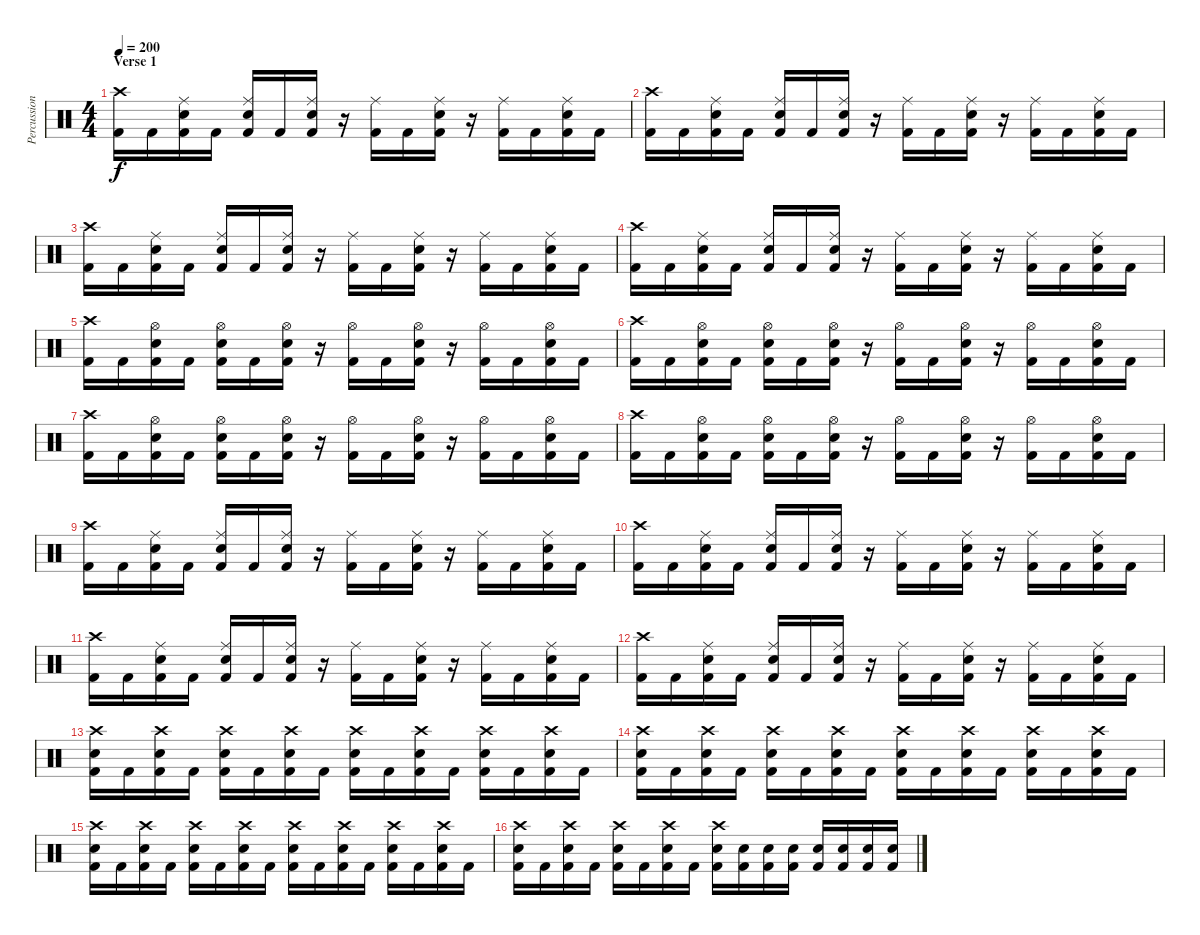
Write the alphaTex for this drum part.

\track ("Percussion" "Percussion") {instrument percussion}
\staff {score}
\articulation defaults
\ts (4 4)
\section ("" "Verse 1")
\tempo 200
\clef neutral
\ks c
("Crash high (hit)" "Kick (hit) 2").16{dy f} "Kick (hit) 2".16 ("Ride (middle)" "Snare (hit) 2" "Kick (hit) 2").16 "Kick (hit) 2".16 ("Ride (middle)" "Snare (hit) 2" "Kick (hit) 2").16 "Kick (hit) 2".16 ("Ride (middle)" "Snare (hit) 2" "Kick (hit) 2").16 r.16 ("Ride (middle)" "Kick (hit) 2").16 "Kick (hit) 2".16 ("Ride (middle)" "Snare (hit) 2" "Kick (hit) 2").16 r.16 ("Ride (middle)" "Kick (hit) 2").16 "Kick (hit) 2".16 ("Ride (middle)" "Snare (hit) 2" "Kick (hit) 2").16 "Kick (hit) 2".16 |
("Crash high (hit)" "Kick (hit) 2").16 "Kick (hit) 2".16 ("Ride (middle)" "Snare (hit) 2" "Kick (hit) 2").16 "Kick (hit) 2".16 ("Ride (middle)" "Snare (hit) 2" "Kick (hit) 2").16 "Kick (hit) 2".16 ("Ride (middle)" "Snare (hit) 2" "Kick (hit) 2").16 r.16 ("Ride (middle)" "Kick (hit) 2").16 "Kick (hit) 2".16 ("Ride (middle)" "Snare (hit) 2" "Kick (hit) 2").16 r.16 ("Ride (middle)" "Kick (hit) 2").16 "Kick (hit) 2".16 ("Ride (middle)" "Snare (hit) 2" "Kick (hit) 2").16 "Kick (hit) 2".16 |
("Crash high (hit)" "Kick (hit) 2").16 "Kick (hit) 2".16 ("Ride (middle)" "Snare (hit) 2" "Kick (hit) 2").16 "Kick (hit) 2".16 ("Ride (middle)" "Snare (hit) 2" "Kick (hit) 2").16 "Kick (hit) 2".16 ("Ride (middle)" "Snare (hit) 2" "Kick (hit) 2").16 r.16 ("Ride (middle)" "Kick (hit) 2").16 "Kick (hit) 2".16 ("Ride (middle)" "Snare (hit) 2" "Kick (hit) 2").16 r.16 ("Ride (middle)" "Kick (hit) 2").16 "Kick (hit) 2".16 ("Ride (middle)" "Snare (hit) 2" "Kick (hit) 2").16 "Kick (hit) 2".16 |
("Crash high (hit)" "Kick (hit) 2").16 "Kick (hit) 2".16 ("Ride (middle)" "Snare (hit) 2" "Kick (hit) 2").16 "Kick (hit) 2".16 ("Ride (middle)" "Snare (hit) 2" "Kick (hit) 2").16 "Kick (hit) 2".16 ("Ride (middle)" "Snare (hit) 2" "Kick (hit) 2").16 r.16 ("Ride (middle)" "Kick (hit) 2").16 "Kick (hit) 2".16 ("Ride (middle)" "Snare (hit) 2" "Kick (hit) 2").16 r.16 ("Ride (middle)" "Kick (hit) 2").16 "Kick (hit) 2".16 ("Ride (middle)" "Snare (hit) 2" "Kick (hit) 2").16 "Kick (hit) 2".16 |
("Crash high (hit)" "Kick (hit) 2").16 "Kick (hit) 2".16 ("Hi-Hat (open)" "Snare (hit) 2" "Kick (hit) 2").16 "Kick (hit) 2".16 ("Hi-Hat (open)" "Snare (hit) 2" "Kick (hit) 2").16 "Kick (hit) 2".16 ("Hi-Hat (open)" "Snare (hit) 2" "Kick (hit) 2").16 r.16 ("Hi-Hat (open)" "Kick (hit) 2").16 "Kick (hit) 2".16 ("Hi-Hat (open)" "Snare (hit) 2" "Kick (hit) 2").16 r.16 ("Hi-Hat (open)" "Kick (hit) 2").16 "Kick (hit) 2".16 ("Hi-Hat (open)" "Snare (hit) 2" "Kick (hit) 2").16 "Kick (hit) 2".16 |
("Crash high (hit)" "Kick (hit) 2").16 "Kick (hit) 2".16 ("Hi-Hat (open)" "Snare (hit) 2" "Kick (hit) 2").16 "Kick (hit) 2".16 ("Hi-Hat (open)" "Snare (hit) 2" "Kick (hit) 2").16 "Kick (hit) 2".16 ("Hi-Hat (open)" "Snare (hit) 2" "Kick (hit) 2").16 r.16 ("Hi-Hat (open)" "Kick (hit) 2").16 "Kick (hit) 2".16 ("Hi-Hat (open)" "Snare (hit) 2" "Kick (hit) 2").16 r.16 ("Hi-Hat (open)" "Kick (hit) 2").16 "Kick (hit) 2".16 ("Hi-Hat (open)" "Snare (hit) 2" "Kick (hit) 2").16 "Kick (hit) 2".16 |
("Crash high (hit)" "Kick (hit) 2").16 "Kick (hit) 2".16 ("Hi-Hat (open)" "Snare (hit) 2" "Kick (hit) 2").16 "Kick (hit) 2".16 ("Hi-Hat (open)" "Snare (hit) 2" "Kick (hit) 2").16 "Kick (hit) 2".16 ("Hi-Hat (open)" "Snare (hit) 2" "Kick (hit) 2").16 r.16 ("Hi-Hat (open)" "Kick (hit) 2").16 "Kick (hit) 2".16 ("Hi-Hat (open)" "Snare (hit) 2" "Kick (hit) 2").16 r.16 ("Hi-Hat (open)" "Kick (hit) 2").16 "Kick (hit) 2".16 ("Hi-Hat (open)" "Snare (hit) 2" "Kick (hit) 2").16 "Kick (hit) 2".16 |
("Crash high (hit)" "Kick (hit) 2").16 "Kick (hit) 2".16 ("Hi-Hat (open)" "Snare (hit) 2" "Kick (hit) 2").16 "Kick (hit) 2".16 ("Hi-Hat (open)" "Snare (hit) 2" "Kick (hit) 2").16 "Kick (hit) 2".16 ("Hi-Hat (open)" "Snare (hit) 2" "Kick (hit) 2").16 r.16 ("Hi-Hat (open)" "Kick (hit) 2").16 "Kick (hit) 2".16 ("Hi-Hat (open)" "Snare (hit) 2" "Kick (hit) 2").16 r.16 ("Hi-Hat (open)" "Kick (hit) 2").16 "Kick (hit) 2".16 ("Hi-Hat (open)" "Snare (hit) 2" "Kick (hit) 2").16 "Kick (hit) 2".16 |
("Crash high (hit)" "Kick (hit) 2").16 "Kick (hit) 2".16 ("Ride (middle)" "Snare (hit) 2" "Kick (hit) 2").16 "Kick (hit) 2".16 ("Ride (middle)" "Snare (hit) 2" "Kick (hit) 2").16 "Kick (hit) 2".16 ("Ride (middle)" "Snare (hit) 2" "Kick (hit) 2").16 r.16 ("Ride (middle)" "Kick (hit) 2").16 "Kick (hit) 2".16 ("Ride (middle)" "Snare (hit) 2" "Kick (hit) 2").16 r.16 ("Ride (middle)" "Kick (hit) 2").16 "Kick (hit) 2".16 ("Ride (middle)" "Snare (hit) 2" "Kick (hit) 2").16 "Kick (hit) 2".16 |
("Crash high (hit)" "Kick (hit) 2").16 "Kick (hit) 2".16 ("Ride (middle)" "Snare (hit) 2" "Kick (hit) 2").16 "Kick (hit) 2".16 ("Ride (middle)" "Snare (hit) 2" "Kick (hit) 2").16 "Kick (hit) 2".16 ("Ride (middle)" "Snare (hit) 2" "Kick (hit) 2").16 r.16 ("Ride (middle)" "Kick (hit) 2").16 "Kick (hit) 2".16 ("Ride (middle)" "Snare (hit) 2" "Kick (hit) 2").16 r.16 ("Ride (middle)" "Kick (hit) 2").16 "Kick (hit) 2".16 ("Ride (middle)" "Snare (hit) 2" "Kick (hit) 2").16 "Kick (hit) 2".16 |
("Crash high (hit)" "Kick (hit) 2").16 "Kick (hit) 2".16 ("Ride (middle)" "Snare (hit) 2" "Kick (hit) 2").16 "Kick (hit) 2".16 ("Ride (middle)" "Snare (hit) 2" "Kick (hit) 2").16 "Kick (hit) 2".16 ("Ride (middle)" "Snare (hit) 2" "Kick (hit) 2").16 r.16 ("Ride (middle)" "Kick (hit) 2").16 "Kick (hit) 2".16 ("Ride (middle)" "Snare (hit) 2" "Kick (hit) 2").16 r.16 ("Ride (middle)" "Kick (hit) 2").16 "Kick (hit) 2".16 ("Ride (middle)" "Snare (hit) 2" "Kick (hit) 2").16 "Kick (hit) 2".16 |
("Crash high (hit)" "Kick (hit) 2").16 "Kick (hit) 2".16 ("Ride (middle)" "Snare (hit) 2" "Kick (hit) 2").16 "Kick (hit) 2".16 ("Ride (middle)" "Snare (hit) 2" "Kick (hit) 2").16 "Kick (hit) 2".16 ("Ride (middle)" "Snare (hit) 2" "Kick (hit) 2").16 r.16 ("Ride (middle)" "Kick (hit) 2").16 "Kick (hit) 2".16 ("Ride (middle)" "Snare (hit) 2" "Kick (hit) 2").16 r.16 ("Ride (middle)" "Kick (hit) 2").16 "Kick (hit) 2".16 ("Ride (middle)" "Snare (hit) 2" "Kick (hit) 2").16 "Kick (hit) 2".16 |
("Crash high (hit)" "Snare (hit) 2" "Kick (hit) 2").16 "Kick (hit) 2".16 ("Crash high (hit)" "Snare (hit) 2" "Kick (hit) 2").16 "Kick (hit) 2".16 ("Crash high (hit)" "Snare (hit) 2" "Kick (hit) 2").16 "Kick (hit) 2".16 ("Crash high (hit)" "Snare (hit) 2" "Kick (hit) 2").16 "Kick (hit) 2".16 ("Crash high (hit)" "Snare (hit) 2" "Kick (hit) 2").16 "Kick (hit) 2".16 ("Crash high (hit)" "Snare (hit) 2" "Kick (hit) 2").16 "Kick (hit) 2".16 ("Crash high (hit)" "Snare (hit) 2" "Kick (hit) 2").16 "Kick (hit) 2".16 ("Crash high (hit)" "Snare (hit) 2" "Kick (hit) 2").16 "Kick (hit) 2".16 |
("Crash high (hit)" "Snare (hit) 2" "Kick (hit) 2").16 "Kick (hit) 2".16 ("Crash high (hit)" "Snare (hit) 2" "Kick (hit) 2").16 "Kick (hit) 2".16 ("Crash high (hit)" "Snare (hit) 2" "Kick (hit) 2").16 "Kick (hit) 2".16 ("Crash high (hit)" "Snare (hit) 2" "Kick (hit) 2").16 "Kick (hit) 2".16 ("Crash high (hit)" "Snare (hit) 2" "Kick (hit) 2").16 "Kick (hit) 2".16 ("Crash high (hit)" "Snare (hit) 2" "Kick (hit) 2").16 "Kick (hit) 2".16 ("Crash high (hit)" "Snare (hit) 2" "Kick (hit) 2").16 "Kick (hit) 2".16 ("Crash high (hit)" "Snare (hit) 2" "Kick (hit) 2").16 "Kick (hit) 2".16 |
("Crash high (hit)" "Snare (hit) 2" "Kick (hit) 2").16 "Kick (hit) 2".16 ("Crash high (hit)" "Snare (hit) 2" "Kick (hit) 2").16 "Kick (hit) 2".16 ("Crash high (hit)" "Snare (hit) 2" "Kick (hit) 2").16 "Kick (hit) 2".16 ("Crash high (hit)" "Snare (hit) 2" "Kick (hit) 2").16 "Kick (hit) 2".16 ("Crash high (hit)" "Snare (hit) 2" "Kick (hit) 2").16 "Kick (hit) 2".16 ("Crash high (hit)" "Snare (hit) 2" "Kick (hit) 2").16 "Kick (hit) 2".16 ("Crash high (hit)" "Snare (hit) 2" "Kick (hit) 2").16 "Kick (hit) 2".16 ("Crash high (hit)" "Snare (hit) 2" "Kick (hit) 2").16 "Kick (hit) 2".16 |
("Crash high (hit)" "Snare (hit) 2" "Kick (hit) 2").16 "Kick (hit) 2".16 ("Crash high (hit)" "Snare (hit) 2" "Kick (hit) 2").16 "Kick (hit) 2".16 ("Crash high (hit)" "Snare (hit) 2" "Kick (hit) 2").16 "Kick (hit) 2".16 ("Crash high (hit)" "Snare (hit) 2" "Kick (hit) 2").16 "Kick (hit) 2".16 ("Crash high (hit)" "Snare (hit) 2" "Kick (hit) 2").16 ("Snare (hit) 2" "Kick (hit) 2").16 ("Snare (hit) 2" "Kick (hit) 2").16 ("Snare (hit) 2" "Kick (hit) 2").16 ("Snare (hit) 2" "Kick (hit) 2").16 ("Snare (hit) 2" "Kick (hit) 2").16 ("Snare (hit) 2" "Kick (hit) 2").16 ("Snare (hit) 2" "Kick (hit) 2").16
